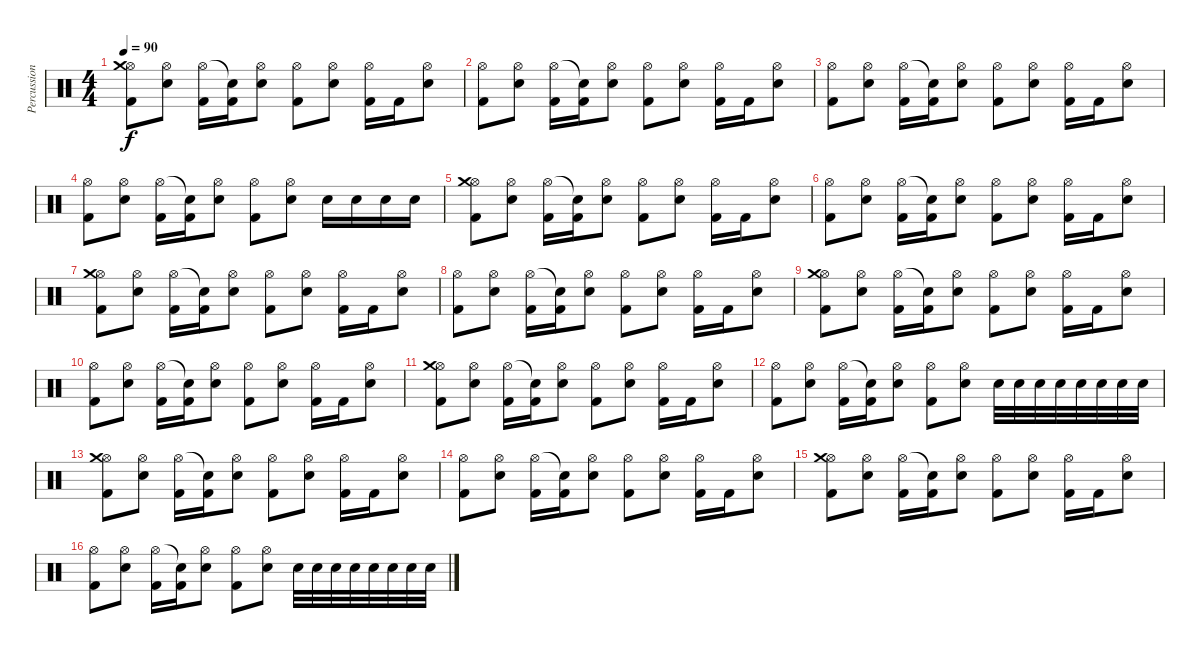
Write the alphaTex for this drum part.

\track ("Percussion" "Percussion") {instrument percussion}
\staff {score}
\articulation defaults
\ts (4 4)
\tempo 90
\clef neutral
\ks c
("Hi-Hat (open)" "Crash medium (hit)" "Kick (hit) 2").8{dy f} ("Hi-Hat (open)" "Snare (hit) 2").8 ("Hi-Hat (open)" "Kick (hit) 2").16 ("Snare (hit)"{t} "Kick (hit) 2").16 ("Hi-Hat (open)" "Snare (hit) 2").8 ("Hi-Hat (open)" "Kick (hit) 2").8 ("Hi-Hat (open)" "Snare (hit) 2").8 ("Hi-Hat (open)" "Kick (hit) 2").16 "Kick (hit) 2".16 ("Hi-Hat (open)" "Snare (hit) 2").8 |
("Hi-Hat (open)" "Kick (hit) 2").8 ("Hi-Hat (open)" "Snare (hit) 2").8 ("Hi-Hat (open)" "Kick (hit) 2").16 ("Snare (hit)"{t} "Kick (hit) 2").16 ("Hi-Hat (open)" "Snare (hit) 2").8 ("Hi-Hat (open)" "Kick (hit) 2").8 ("Hi-Hat (open)" "Snare (hit) 2").8 ("Hi-Hat (open)" "Kick (hit) 2").16 "Kick (hit) 2".16 ("Hi-Hat (open)" "Snare (hit) 2").8 |
("Hi-Hat (open)" "Kick (hit) 2").8 ("Hi-Hat (open)" "Snare (hit) 2").8 ("Hi-Hat (open)" "Kick (hit) 2").16 ("Snare (hit)"{t} "Kick (hit) 2").16 ("Hi-Hat (open)" "Snare (hit) 2").8 ("Hi-Hat (open)" "Kick (hit) 2").8 ("Hi-Hat (open)" "Snare (hit) 2").8 ("Hi-Hat (open)" "Kick (hit) 2").16 "Kick (hit) 2".16 ("Hi-Hat (open)" "Snare (hit) 2").8 |
("Hi-Hat (open)" "Kick (hit) 2").8 ("Hi-Hat (open)" "Snare (hit) 2").8 ("Hi-Hat (open)" "Kick (hit) 2").16 ("Snare (hit)"{t} "Kick (hit) 2").16 ("Hi-Hat (open)" "Snare (hit) 2").8 ("Hi-Hat (open)" "Kick (hit) 2").8 ("Hi-Hat (open)" "Snare (hit) 2").8 "Snare (hit) 2".16 "Snare (hit) 2".16 "Snare (hit) 2".16 "Snare (hit) 2".16 |
("Hi-Hat (open)" "Crash medium (hit)" "Kick (hit) 2").8 ("Hi-Hat (open)" "Snare (hit) 2").8 ("Hi-Hat (open)" "Kick (hit) 2").16 ("Snare (hit)"{t} "Kick (hit) 2").16 ("Hi-Hat (open)" "Snare (hit) 2").8 ("Hi-Hat (open)" "Kick (hit) 2").8 ("Hi-Hat (open)" "Snare (hit) 2").8 ("Hi-Hat (open)" "Kick (hit) 2").16 "Kick (hit) 2".16 ("Hi-Hat (open)" "Snare (hit) 2").8 |
("Hi-Hat (open)" "Kick (hit) 2").8 ("Hi-Hat (open)" "Snare (hit) 2").8 ("Hi-Hat (open)" "Kick (hit) 2").16 ("Snare (hit)"{t} "Kick (hit) 2").16 ("Hi-Hat (open)" "Snare (hit) 2").8 ("Hi-Hat (open)" "Kick (hit) 2").8 ("Hi-Hat (open)" "Snare (hit) 2").8 ("Hi-Hat (open)" "Kick (hit) 2").16 "Kick (hit) 2".16 ("Hi-Hat (open)" "Snare (hit) 2").8 |
("Hi-Hat (open)" "Crash medium (hit)" "Kick (hit) 2").8 ("Hi-Hat (open)" "Snare (hit) 2").8 ("Hi-Hat (open)" "Kick (hit) 2").16 ("Snare (hit)"{t} "Kick (hit) 2").16 ("Hi-Hat (open)" "Snare (hit) 2").8 ("Hi-Hat (open)" "Kick (hit) 2").8 ("Hi-Hat (open)" "Snare (hit) 2").8 ("Hi-Hat (open)" "Kick (hit) 2").16 "Kick (hit) 2".16 ("Hi-Hat (open)" "Snare (hit) 2").8 |
("Hi-Hat (open)" "Kick (hit) 2").8 ("Hi-Hat (open)" "Snare (hit) 2").8 ("Hi-Hat (open)" "Kick (hit) 2").16 ("Snare (hit)"{t} "Kick (hit) 2").16 ("Hi-Hat (open)" "Snare (hit) 2").8 ("Hi-Hat (open)" "Kick (hit) 2").8 ("Hi-Hat (open)" "Snare (hit) 2").8 ("Hi-Hat (open)" "Kick (hit) 2").16 "Kick (hit) 2".16 ("Hi-Hat (open)" "Snare (hit) 2").8 |
("Hi-Hat (open)" "Crash medium (hit)" "Kick (hit) 2").8 ("Hi-Hat (open)" "Snare (hit) 2").8 ("Hi-Hat (open)" "Kick (hit) 2").16 ("Snare (hit)"{t} "Kick (hit) 2").16 ("Hi-Hat (open)" "Snare (hit) 2").8 ("Hi-Hat (open)" "Kick (hit) 2").8 ("Hi-Hat (open)" "Snare (hit) 2").8 ("Hi-Hat (open)" "Kick (hit) 2").16 "Kick (hit) 2".16 ("Hi-Hat (open)" "Snare (hit) 2").8 |
("Hi-Hat (open)" "Kick (hit) 2").8 ("Hi-Hat (open)" "Snare (hit) 2").8 ("Hi-Hat (open)" "Kick (hit) 2").16 ("Snare (hit)"{t} "Kick (hit) 2").16 ("Hi-Hat (open)" "Snare (hit) 2").8 ("Hi-Hat (open)" "Kick (hit) 2").8 ("Hi-Hat (open)" "Snare (hit) 2").8 ("Hi-Hat (open)" "Kick (hit) 2").16 "Kick (hit) 2".16 ("Hi-Hat (open)" "Snare (hit) 2").8 |
("Hi-Hat (open)" "Crash medium (hit)" "Kick (hit) 2").8 ("Hi-Hat (open)" "Snare (hit) 2").8 ("Hi-Hat (open)" "Kick (hit) 2").16 ("Snare (hit)"{t} "Kick (hit) 2").16 ("Hi-Hat (open)" "Snare (hit) 2").8 ("Hi-Hat (open)" "Kick (hit) 2").8 ("Hi-Hat (open)" "Snare (hit) 2").8 ("Hi-Hat (open)" "Kick (hit) 2").16 "Kick (hit) 2".16 ("Hi-Hat (open)" "Snare (hit) 2").8 |
("Hi-Hat (open)" "Kick (hit) 2").8 ("Hi-Hat (open)" "Snare (hit) 2").8 ("Hi-Hat (open)" "Kick (hit) 2").16 ("Snare (hit)"{t} "Kick (hit) 2").16 ("Hi-Hat (open)" "Snare (hit) 2").8 ("Hi-Hat (open)" "Kick (hit) 2").8 ("Hi-Hat (open)" "Snare (hit) 2").8 "Snare (hit) 2".32 "Snare (hit) 2".32 "Snare (hit) 2".32 "Snare (hit) 2".32 "Snare (hit) 2".32 "Snare (hit) 2".32 "Snare (hit) 2".32 "Snare (hit) 2".32 |
("Hi-Hat (open)" "Crash medium (hit)" "Kick (hit) 2").8 ("Hi-Hat (open)" "Snare (hit) 2").8 ("Hi-Hat (open)" "Kick (hit) 2").16 ("Snare (hit)"{t} "Kick (hit) 2").16 ("Hi-Hat (open)" "Snare (hit) 2").8 ("Hi-Hat (open)" "Kick (hit) 2").8 ("Hi-Hat (open)" "Snare (hit) 2").8 ("Hi-Hat (open)" "Kick (hit) 2").16 "Kick (hit) 2".16 ("Hi-Hat (open)" "Snare (hit) 2").8 |
("Hi-Hat (open)" "Kick (hit) 2").8 ("Hi-Hat (open)" "Snare (hit) 2").8 ("Hi-Hat (open)" "Kick (hit) 2").16 ("Snare (hit)"{t} "Kick (hit) 2").16 ("Hi-Hat (open)" "Snare (hit) 2").8 ("Hi-Hat (open)" "Kick (hit) 2").8 ("Hi-Hat (open)" "Snare (hit) 2").8 ("Hi-Hat (open)" "Kick (hit) 2").16 "Kick (hit) 2".16 ("Hi-Hat (open)" "Snare (hit) 2").8 |
("Hi-Hat (open)" "Crash medium (hit)" "Kick (hit) 2").8 ("Hi-Hat (open)" "Snare (hit) 2").8 ("Hi-Hat (open)" "Kick (hit) 2").16 ("Snare (hit)"{t} "Kick (hit) 2").16 ("Hi-Hat (open)" "Snare (hit) 2").8 ("Hi-Hat (open)" "Kick (hit) 2").8 ("Hi-Hat (open)" "Snare (hit) 2").8 ("Hi-Hat (open)" "Kick (hit) 2").16 "Kick (hit) 2".16 ("Hi-Hat (open)" "Snare (hit) 2").8 |
("Hi-Hat (open)" "Kick (hit) 2").8 ("Hi-Hat (open)" "Snare (hit) 2").8 ("Hi-Hat (open)" "Kick (hit) 2").16 ("Snare (hit)"{t} "Kick (hit) 2").16 ("Hi-Hat (open)" "Snare (hit) 2").8 ("Hi-Hat (open)" "Kick (hit) 2").8 ("Hi-Hat (open)" "Snare (hit) 2").8 "Snare (hit) 2".32 "Snare (hit) 2".32 "Snare (hit) 2".32 "Snare (hit) 2".32 "Snare (hit) 2".32 "Snare (hit) 2".32 "Snare (hit) 2".32 "Snare (hit) 2".32
